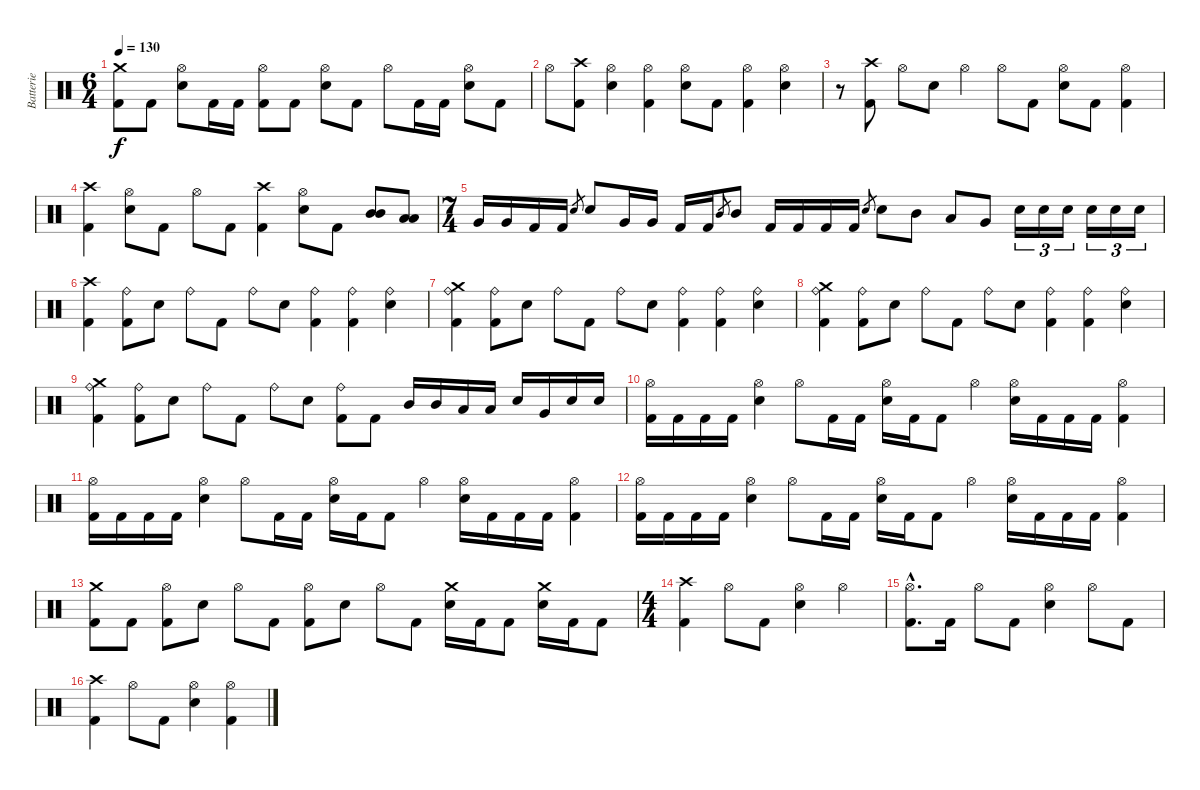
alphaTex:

\track ("Batterie" "Batterie") {instrument percussion}
\staff {score}
\articulation defaults
\ts (6 4)
\tempo 130
\clef neutral
\ks c
("Crash medium (hit)" "Kick (hit) 2").8{dy f} "Kick (hit) 2".8 ("Hi-Hat (open)" "Snare (hit) 2").8 "Kick (hit) 2".16 "Kick (hit) 2".16 ("Hi-Hat (open)" "Kick (hit) 2").8 "Kick (hit) 2".8 ("Hi-Hat (open)" "Snare (hit) 2").8 "Kick (hit) 2".8 "Hi-Hat (open)".8 "Kick (hit) 2".16 "Kick (hit) 2".16 ("Hi-Hat (open)" "Snare (hit) 2").8 "Kick (hit) 2".8 |
"Hi-Hat (open)".8 ("Crash high (hit)" "Kick (hit) 2").8 ("Hi-Hat (open)" "Snare (hit) 2").4 ("Hi-Hat (open)" "Kick (hit) 2").4 ("Hi-Hat (open)" "Snare (hit) 2").8 "Kick (hit) 2".8 ("Hi-Hat (open)" "Kick (hit) 2").4 ("Hi-Hat (open)" "Snare (hit) 2").4 |
r.8 ("Crash high (hit)" "Kick (hit) 2").8 "Hi-Hat (open)".8 "Snare (hit) 2".8 "Hi-Hat (open)".4 "Hi-Hat (open)".8 "Kick (hit) 2".8 ("Hi-Hat (open)" "Snare (hit) 2").8 "Kick (hit) 2".8 ("Hi-Hat (open)" "Kick (hit) 2").4 |
("Crash high (hit)" "Kick (hit) 2").4 ("Hi-Hat (open)" "Snare (hit) 2").8 "Kick (hit) 2".8 "Hi-Hat (open)".8 "Kick (hit) 2".8 ("Crash high (hit)" "Kick (hit) 2").4 ("Hi-Hat (open)" "Snare (hit) 2").8 "Kick (hit) 2".8 ("Mid Tom (hit)" "Mid Tom (hit)").8 ("Low Tom (hit)" "Low Tom (hit)").8 |
\ts (7 4)
"Very Low Tom (hit)".16 "Very Low Tom (hit)".16 "Kick (hit) 2".16 "Kick (hit) 2".16 "Snare (hit) 2".8{gr} "Snare (hit) 2".8 "Very Low Tom (hit)".16 "Very Low Tom (hit)".16 "Kick (hit) 2".16 "Kick (hit) 2".16 "Mid Tom (hit)".8{gr} "Mid Tom (hit)".8 "Kick (hit) 2".16 "Kick (hit) 2".16 "Kick (hit) 2".16 "Kick (hit) 2".16 "Snare (hit) 2".8{gr} "Snare (hit) 2".8 "Mid Tom (hit)".8 "Low Tom (hit)".8 "Very Low Tom (hit)".8 "Snare (hit) 2".16{tu (3 2)} "Snare (hit) 2".16{tu (3 2)} "Snare (hit) 2".16{tu (3 2)} "Snare (hit) 2".16{tu (3 2)} "Snare (hit) 2".16{tu (3 2)} "Snare (hit) 2".16{tu (3 2)} |
("Crash high (hit)" "Kick (hit) 2").4 ("Ride (bell)" "Kick (hit) 2").8 "Snare (hit) 2".8 "Ride (bell)".8 "Kick (hit) 2".8 "Ride (bell)".8 "Snare (hit) 2".8 ("Ride (bell)" "Kick (hit) 2").4 ("Ride (bell)" "Kick (hit) 2").4 ("Ride (bell)" "Snare (hit) 2").4 |
("Ride (bell)" "Crash medium (hit)" "Kick (hit) 2").4 ("Ride (bell)" "Kick (hit) 2").8 "Snare (hit) 2".8 "Ride (bell)".8 "Kick (hit) 2".8 "Ride (bell)".8 "Snare (hit) 2".8 ("Ride (bell)" "Kick (hit) 2").4 ("Ride (bell)" "Kick (hit) 2").4 ("Ride (bell)" "Snare (hit) 2").4 |
("Ride (bell)" "Crash medium (hit)" "Kick (hit) 2").4 ("Ride (bell)" "Kick (hit) 2").8 "Snare (hit) 2".8 "Ride (bell)".8 "Kick (hit) 2".8 "Ride (bell)".8 "Snare (hit) 2".8 ("Ride (bell)" "Kick (hit) 2").4 ("Ride (bell)" "Kick (hit) 2").4 ("Ride (bell)" "Snare (hit) 2").4 |
("Ride (bell)" "Crash medium (hit)" "Kick (hit) 2").4 ("Ride (bell)" "Kick (hit) 2").8 "Snare (hit) 2".8 "Ride (bell)".8 "Kick (hit) 2".8 "Ride (bell)".8 "Snare (hit) 2".8 ("Ride (bell)" "Kick (hit) 2").8 "Kick (hit) 2".8 "Mid Tom (hit)".16 "Mid Tom (hit)".16 "Low Tom (hit)".16 "Low Tom (hit)".16 "Snare (hit) 2".16 "Very Low Tom (hit)".16 "Snare (hit) 2".16 "Snare (hit) 2".16 |
("Hi-Hat (open)" "Kick (hit) 2").16 "Kick (hit) 2".16 "Kick (hit) 2".16 "Kick (hit) 2".16 ("Hi-Hat (open)" "Snare (hit) 2").4 "Hi-Hat (open)".8 "Kick (hit) 2".16 "Kick (hit) 2".16 ("Hi-Hat (open)" "Snare (hit) 2").16 "Kick (hit) 2".16 "Kick (hit) 2".8 "Hi-Hat (open)".4 ("Hi-Hat (open)" "Snare (hit) 2").16 "Kick (hit) 2".16 "Kick (hit) 2".16 "Kick (hit) 2".16 ("Hi-Hat (open)" "Kick (hit) 2").4 |
("Hi-Hat (open)" "Kick (hit) 2").16 "Kick (hit) 2".16 "Kick (hit) 2".16 "Kick (hit) 2".16 ("Hi-Hat (open)" "Snare (hit) 2").4 "Hi-Hat (open)".8 "Kick (hit) 2".16 "Kick (hit) 2".16 ("Hi-Hat (open)" "Snare (hit) 2").16 "Kick (hit) 2".16 "Kick (hit) 2".8 "Hi-Hat (open)".4 ("Hi-Hat (open)" "Snare (hit) 2").16 "Kick (hit) 2".16 "Kick (hit) 2".16 "Kick (hit) 2".16 ("Hi-Hat (open)" "Kick (hit) 2").4 |
("Hi-Hat (open)" "Kick (hit) 2").16 "Kick (hit) 2".16 "Kick (hit) 2".16 "Kick (hit) 2".16 ("Hi-Hat (open)" "Snare (hit) 2").4 "Hi-Hat (open)".8 "Kick (hit) 2".16 "Kick (hit) 2".16 ("Hi-Hat (open)" "Snare (hit) 2").16 "Kick (hit) 2".16 "Kick (hit) 2".8 "Hi-Hat (open)".4 ("Hi-Hat (open)" "Snare (hit) 2").16 "Kick (hit) 2".16 "Kick (hit) 2".16 "Kick (hit) 2".16 ("Hi-Hat (open)" "Kick (hit) 2").4 |
("Crash medium (hit)" "Kick (hit) 2").8 "Kick (hit) 2".8 ("Hi-Hat (open)" "Kick (hit) 2").8 "Snare (hit) 2".8 "Hi-Hat (open)".8 "Kick (hit) 2".8 ("Hi-Hat (open)" "Kick (hit) 2").8 "Snare (hit) 2".8 "Hi-Hat (open)".8 "Kick (hit) 2".8 ("Crash medium (hit)" "Snare (hit) 2").16 "Kick (hit) 2".16 "Kick (hit) 2".8 ("Crash medium (hit)" "Snare (hit) 2").16 "Kick (hit) 2".16 "Kick (hit) 2".8 |
\ts (4 4)
("Crash high (hit)" "Kick (hit) 2").4 "Hi-Hat (open)".8 "Kick (hit) 2".8 ("Hi-Hat (open)" "Snare (hit) 2").4 "Hi-Hat (open)".4 |
("Hi-Hat (open)"{hac} "Kick (hit) 2"{hac}).8{d} "Kick (hit) 2".16 "Hi-Hat (open)".8 "Kick (hit) 2".8 ("Hi-Hat (open)" "Snare (hit) 2").4 "Hi-Hat (open)".8 "Kick (hit) 2".8 |
("Crash high (hit)" "Kick (hit) 2").4 "Hi-Hat (open)".8 "Kick (hit) 2".8 ("Hi-Hat (open)" "Snare (hit) 2").4 ("Hi-Hat (open)" "Kick (hit) 2").4
